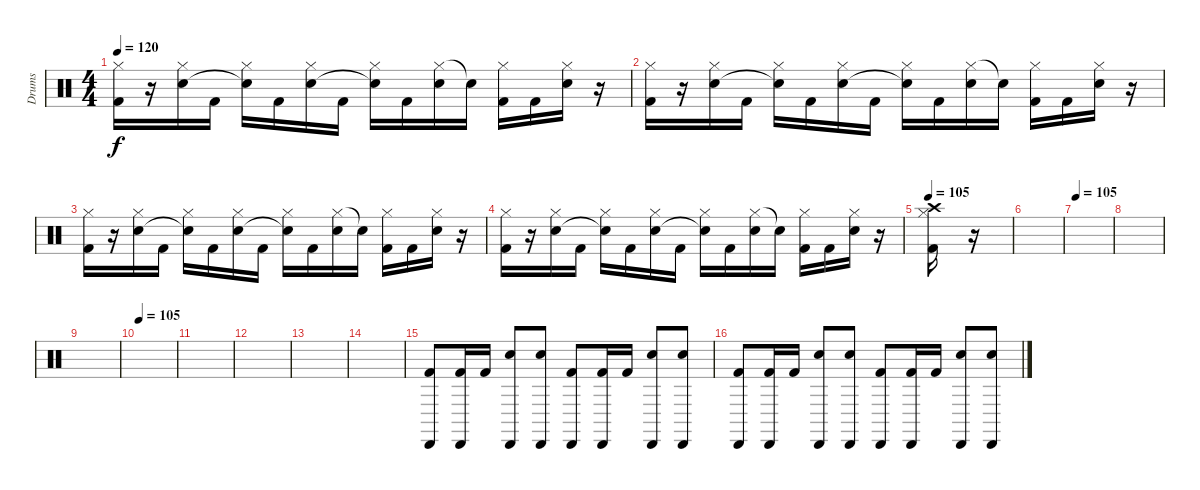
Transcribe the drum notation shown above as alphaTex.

\track ("Drums" "Drums") {instrument percussion}
\staff {score}
\articulation defaults
\ts (4 4)
\tempo 120
\clef neutral
\ks c
("Hi-Hat (closed)" "Kick (hit) 2").16{dy f} r.16 ("Hi-Hat (closed)" "Electric Snare (hit)").16 "Kick (hit) 2".16 ("Hi-Hat (closed)" "Snare (hit)"{t}).16 "Kick (hit) 2".16 ("Hi-Hat (closed)" "Electric Snare (hit)").16 "Kick (hit) 2".16 ("Hi-Hat (closed)" "Snare (hit)"{t}).16 "Kick (hit) 2".16 ("Hi-Hat (closed)" "Electric Snare (hit)").16 "Snare (hit)"{t}.16 ("Hi-Hat (closed)" "Kick (hit) 2").16 "Kick (hit) 2".16 ("Hi-Hat (closed)" "Electric Snare (hit)").16 r.16 |
("Hi-Hat (closed)" "Kick (hit) 2").16 r.16 ("Hi-Hat (closed)" "Electric Snare (hit)").16 "Kick (hit) 2".16 ("Hi-Hat (closed)" "Snare (hit)"{t}).16 "Kick (hit) 2".16 ("Hi-Hat (closed)" "Electric Snare (hit)").16 "Kick (hit) 2".16 ("Hi-Hat (closed)" "Snare (hit)"{t}).16 "Kick (hit) 2".16 ("Hi-Hat (closed)" "Electric Snare (hit)").16 "Snare (hit)"{t}.16 ("Hi-Hat (closed)" "Kick (hit) 2").16 "Kick (hit) 2".16 ("Hi-Hat (closed)" "Electric Snare (hit)").16 r.16 |
("Hi-Hat (closed)" "Kick (hit) 2").16 r.16 ("Hi-Hat (closed)" "Electric Snare (hit)").16 "Kick (hit) 2".16 ("Hi-Hat (closed)" "Snare (hit)"{t}).16 "Kick (hit) 2".16 ("Hi-Hat (closed)" "Electric Snare (hit)").16 "Kick (hit) 2".16 ("Hi-Hat (closed)" "Snare (hit)"{t}).16 "Kick (hit) 2".16 ("Hi-Hat (closed)" "Electric Snare (hit)").16 "Snare (hit)"{t}.16 ("Hi-Hat (closed)" "Kick (hit) 2").16 "Kick (hit) 2".16 ("Hi-Hat (closed)" "Electric Snare (hit)").16 r.16 |
("Hi-Hat (closed)" "Kick (hit) 2").16 r.16 ("Hi-Hat (closed)" "Electric Snare (hit)").16 "Kick (hit) 2".16 ("Hi-Hat (closed)" "Snare (hit)"{t}).16 "Kick (hit) 2".16 ("Hi-Hat (closed)" "Electric Snare (hit)").16 "Kick (hit) 2".16 ("Hi-Hat (closed)" "Snare (hit)"{t}).16 "Kick (hit) 2".16 ("Hi-Hat (closed)" "Electric Snare (hit)").16 "Snare (hit)"{t}.16 ("Hi-Hat (closed)" "Kick (hit) 2").16 "Kick (hit) 2".16 ("Hi-Hat (closed)" "Electric Snare (hit)").16 r.16 |
\tempo 105
("Hi-Hat (closed)" "Crash high (hit)" "Kick (hit) 2").16 r.16 |
|
\tempo 105
|
|
|
\tempo 105
|
|
|
|
|
("Cabasa (hit)" "Kick (hit) 2").8 ("Cabasa (hit)" "Kick (hit) 2").16 "Kick (hit) 2".16 ("Cabasa (hit)" "Electric Snare (hit)").8 ("Cabasa (hit)" "Electric Snare (hit)").8 ("Cabasa (hit)" "Kick (hit) 2").8 ("Cabasa (hit)" "Kick (hit) 2").16 "Kick (hit) 2".16 ("Cabasa (hit)" "Electric Snare (hit)").8 ("Cabasa (hit)" "Electric Snare (hit)").8 |
("Cabasa (hit)" "Kick (hit) 2").8 ("Cabasa (hit)" "Kick (hit) 2").16 "Kick (hit) 2".16 ("Cabasa (hit)" "Electric Snare (hit)").8 ("Cabasa (hit)" "Electric Snare (hit)").8 ("Cabasa (hit)" "Kick (hit) 2").8 ("Cabasa (hit)" "Kick (hit) 2").16 "Kick (hit) 2".16 ("Cabasa (hit)" "Electric Snare (hit)").8 ("Cabasa (hit)" "Electric Snare (hit)").8
